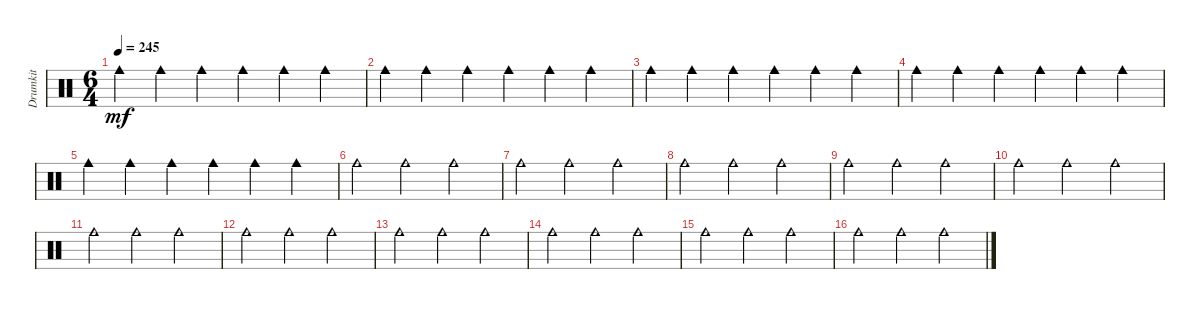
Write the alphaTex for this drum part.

\track ("Drumkit" "Drumkit") {instrument percussion}
\staff {score}
\articulation defaults
\ts (6 4)
\tempo 245
\clef neutral
\ks c "Cowbell medium (hit)".4{dy mf} "Cowbell medium (hit)".4 "Cowbell medium (hit)".4 "Cowbell medium (hit)".4 "Cowbell medium (hit)".4 "Cowbell medium (hit)".4
|
"Cowbell medium (hit)".4 "Cowbell medium (hit)".4 "Cowbell medium (hit)".4 "Cowbell medium (hit)".4 "Cowbell medium (hit)".4 "Cowbell medium (hit)".4 |
"Cowbell medium (hit)".4 "Cowbell medium (hit)".4 "Cowbell medium (hit)".4 "Cowbell medium (hit)".4 "Cowbell medium (hit)".4 "Cowbell medium (hit)".4 |
"Cowbell medium (hit)".4 "Cowbell medium (hit)".4 "Cowbell medium (hit)".4 "Cowbell medium (hit)".4 "Cowbell medium (hit)".4 "Cowbell medium (hit)".4 |
"Cowbell medium (hit)".4 "Cowbell medium (hit)".4 "Cowbell medium (hit)".4 "Cowbell medium (hit)".4 "Cowbell medium (hit)".4 "Cowbell medium (hit)".4 |
"Cowbell medium (hit)".2 "Cowbell medium (hit)".2 "Cowbell medium (hit)".2 |
"Cowbell medium (hit)".2 "Cowbell medium (hit)".2 "Cowbell medium (hit)".2 |
"Cowbell medium (hit)".2 "Cowbell medium (hit)".2 "Cowbell medium (hit)".2 |
"Cowbell medium (hit)".2 "Cowbell medium (hit)".2 "Cowbell medium (hit)".2 |
"Cowbell medium (hit)".2 "Cowbell medium (hit)".2 "Cowbell medium (hit)".2 |
"Cowbell medium (hit)".2 "Cowbell medium (hit)".2 "Cowbell medium (hit)".2 |
"Cowbell medium (hit)".2 "Cowbell medium (hit)".2 "Cowbell medium (hit)".2 |
"Cowbell medium (hit)".2 "Cowbell medium (hit)".2 "Cowbell medium (hit)".2 |
"Cowbell medium (hit)".2 "Cowbell medium (hit)".2 "Cowbell medium (hit)".2 |
"Cowbell medium (hit)".2 "Cowbell medium (hit)".2 "Cowbell medium (hit)".2 |
"Cowbell medium (hit)".2 "Cowbell medium (hit)".2 "Cowbell medium (hit)".2
